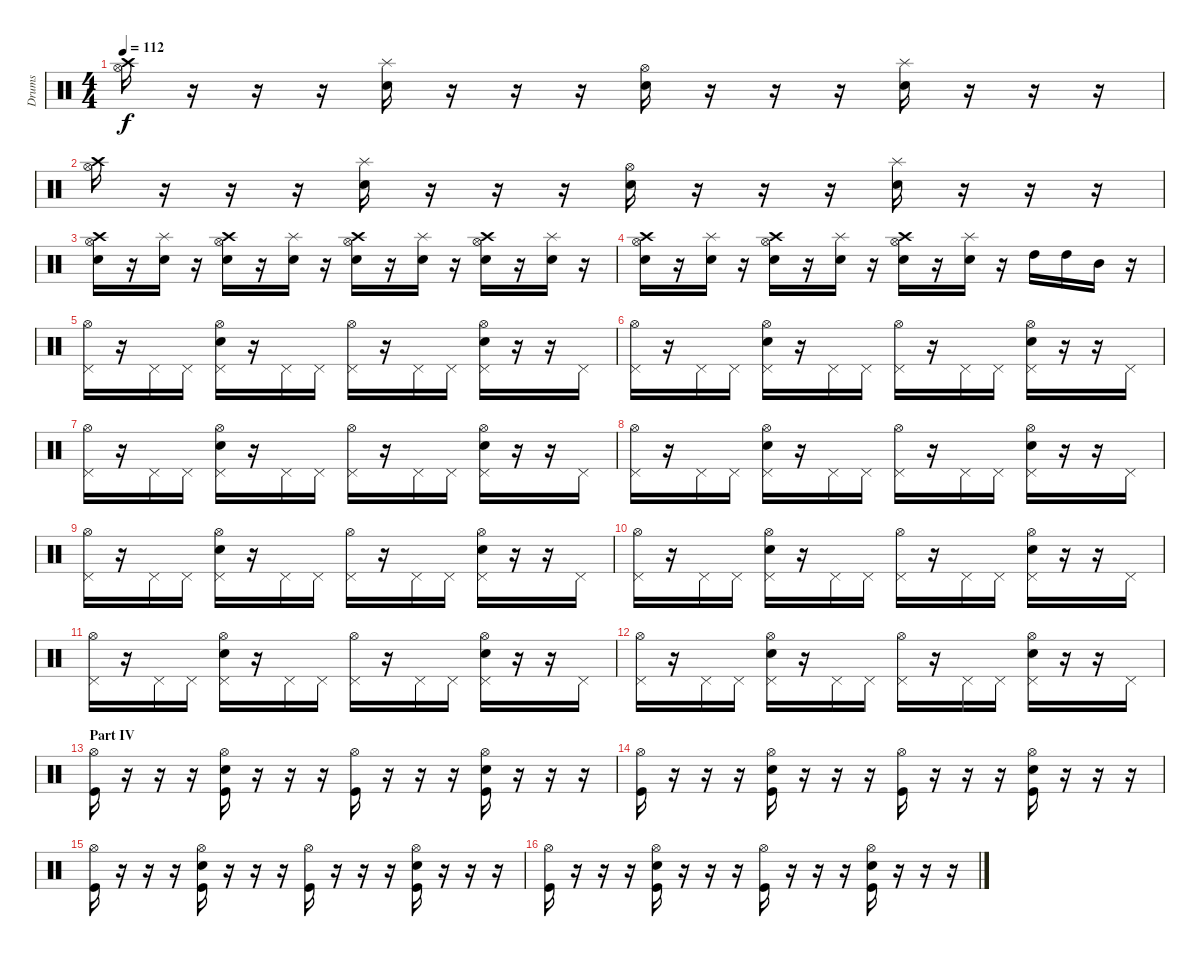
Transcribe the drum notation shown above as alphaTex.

\track ("Drums" "Drums") {instrument percussion}
\staff {score}
\articulation defaults
\ts (4 4)
\tempo 112
\clef neutral
\ks c
("Hi-Hat (open)" "Crash high (hit)").16{dy f} r.16 r.16 r.16 ("Electric Snare (hit)" "Splash (hit)").16 r.16 r.16 r.16 ("Hi-Hat (open)" "Electric Snare (hit)").16 r.16 r.16 r.16 ("Electric Snare (hit)" "Splash (hit)").16 r.16 r.16 r.16 |
("Hi-Hat (open)" "Crash high (hit)").16 r.16 r.16 r.16 ("Electric Snare (hit)" "Splash (hit)").16 r.16 r.16 r.16 ("Hi-Hat (open)" "Electric Snare (hit)").16 r.16 r.16 r.16 ("Electric Snare (hit)" "Splash (hit)").16 r.16 r.16 r.16 |
("Hi-Hat (open)" "Electric Snare (hit)" "Crash high (hit)").16 r.16 ("Electric Snare (hit)" "Splash (hit)").16 r.16 ("Hi-Hat (open)" "Electric Snare (hit)" "Crash high (hit)").16 r.16 ("Electric Snare (hit)" "Splash (hit)").16 r.16 ("Hi-Hat (open)" "Electric Snare (hit)" "Crash high (hit)").16 r.16 ("Electric Snare (hit)" "Splash (hit)").16 r.16 ("Hi-Hat (open)" "Electric Snare (hit)" "Crash high (hit)").16 r.16 ("Electric Snare (hit)" "Splash (hit)").16 r.16 |
("Hi-Hat (open)" "Electric Snare (hit)" "Crash high (hit)").16 r.16 ("Electric Snare (hit)" "Splash (hit)").16 r.16 ("Hi-Hat (open)" "Electric Snare (hit)" "Crash high (hit)").16 r.16 ("Electric Snare (hit)" "Splash (hit)").16 r.16 ("Hi-Hat (open)" "Electric Snare (hit)" "Crash high (hit)").16 r.16 ("Electric Snare (hit)" "Splash (hit)").16 r.16 "High Tom (hit)".16 "High Tom (hit)".16 "Mid Tom (hit)".16 r.16 |
("Pedal Hi-Hat (hit)" "Hi-Hat (open)").16 r.16 "Pedal Hi-Hat (hit)".16 "Pedal Hi-Hat (hit)".16 ("Pedal Hi-Hat (hit)" "Hi-Hat (open)" "Electric Snare (hit)").16 r.16 "Pedal Hi-Hat (hit)".16 "Pedal Hi-Hat (hit)".16 ("Pedal Hi-Hat (hit)" "Hi-Hat (open)").16 r.16 "Pedal Hi-Hat (hit)".16 "Pedal Hi-Hat (hit)".16 ("Pedal Hi-Hat (hit)" "Hi-Hat (open)" "Electric Snare (hit)").16 r.16 r.16 "Pedal Hi-Hat (hit)".16 |
("Pedal Hi-Hat (hit)" "Hi-Hat (open)").16 r.16 "Pedal Hi-Hat (hit)".16 "Pedal Hi-Hat (hit)".16 ("Pedal Hi-Hat (hit)" "Hi-Hat (open)" "Electric Snare (hit)").16 r.16 "Pedal Hi-Hat (hit)".16 "Pedal Hi-Hat (hit)".16 ("Pedal Hi-Hat (hit)" "Hi-Hat (open)").16 r.16 "Pedal Hi-Hat (hit)".16 "Pedal Hi-Hat (hit)".16 ("Pedal Hi-Hat (hit)" "Hi-Hat (open)" "Electric Snare (hit)").16 r.16 r.16 "Pedal Hi-Hat (hit)".16 |
("Pedal Hi-Hat (hit)" "Hi-Hat (open)").16 r.16 "Pedal Hi-Hat (hit)".16 "Pedal Hi-Hat (hit)".16 ("Pedal Hi-Hat (hit)" "Hi-Hat (open)" "Electric Snare (hit)").16 r.16 "Pedal Hi-Hat (hit)".16 "Pedal Hi-Hat (hit)".16 ("Pedal Hi-Hat (hit)" "Hi-Hat (open)").16 r.16 "Pedal Hi-Hat (hit)".16 "Pedal Hi-Hat (hit)".16 ("Pedal Hi-Hat (hit)" "Hi-Hat (open)" "Electric Snare (hit)").16 r.16 r.16 "Pedal Hi-Hat (hit)".16 |
("Pedal Hi-Hat (hit)" "Hi-Hat (open)").16 r.16 "Pedal Hi-Hat (hit)".16 "Pedal Hi-Hat (hit)".16 ("Pedal Hi-Hat (hit)" "Hi-Hat (open)" "Electric Snare (hit)").16 r.16 "Pedal Hi-Hat (hit)".16 "Pedal Hi-Hat (hit)".16 ("Pedal Hi-Hat (hit)" "Hi-Hat (open)").16 r.16 "Pedal Hi-Hat (hit)".16 "Pedal Hi-Hat (hit)".16 ("Pedal Hi-Hat (hit)" "Hi-Hat (open)" "Electric Snare (hit)").16 r.16 r.16 "Pedal Hi-Hat (hit)".16 |
("Pedal Hi-Hat (hit)" "Hi-Hat (open)").16 r.16 "Pedal Hi-Hat (hit)".16 "Pedal Hi-Hat (hit)".16 ("Pedal Hi-Hat (hit)" "Hi-Hat (open)" "Electric Snare (hit)").16 r.16 "Pedal Hi-Hat (hit)".16 "Pedal Hi-Hat (hit)".16 ("Pedal Hi-Hat (hit)" "Hi-Hat (open)").16 r.16 "Pedal Hi-Hat (hit)".16 "Pedal Hi-Hat (hit)".16 ("Pedal Hi-Hat (hit)" "Hi-Hat (open)" "Electric Snare (hit)").16 r.16 r.16 "Pedal Hi-Hat (hit)".16 |
("Pedal Hi-Hat (hit)" "Hi-Hat (open)").16 r.16 "Pedal Hi-Hat (hit)".16 "Pedal Hi-Hat (hit)".16 ("Pedal Hi-Hat (hit)" "Hi-Hat (open)" "Electric Snare (hit)").16 r.16 "Pedal Hi-Hat (hit)".16 "Pedal Hi-Hat (hit)".16 ("Pedal Hi-Hat (hit)" "Hi-Hat (open)").16 r.16 "Pedal Hi-Hat (hit)".16 "Pedal Hi-Hat (hit)".16 ("Pedal Hi-Hat (hit)" "Hi-Hat (open)" "Electric Snare (hit)").16 r.16 r.16 "Pedal Hi-Hat (hit)".16 |
("Pedal Hi-Hat (hit)" "Hi-Hat (open)").16 r.16 "Pedal Hi-Hat (hit)".16 "Pedal Hi-Hat (hit)".16 ("Pedal Hi-Hat (hit)" "Hi-Hat (open)" "Electric Snare (hit)").16 r.16 "Pedal Hi-Hat (hit)".16 "Pedal Hi-Hat (hit)".16 ("Pedal Hi-Hat (hit)" "Hi-Hat (open)").16 r.16 "Pedal Hi-Hat (hit)".16 "Pedal Hi-Hat (hit)".16 ("Pedal Hi-Hat (hit)" "Hi-Hat (open)" "Electric Snare (hit)").16 r.16 r.16 "Pedal Hi-Hat (hit)".16 |
("Pedal Hi-Hat (hit)" "Hi-Hat (open)").16 r.16 "Pedal Hi-Hat (hit)".16 "Pedal Hi-Hat (hit)".16 ("Pedal Hi-Hat (hit)" "Hi-Hat (open)" "Electric Snare (hit)").16 r.16 "Pedal Hi-Hat (hit)".16 "Pedal Hi-Hat (hit)".16 ("Pedal Hi-Hat (hit)" "Hi-Hat (open)").16 r.16 "Pedal Hi-Hat (hit)".16 "Pedal Hi-Hat (hit)".16 ("Pedal Hi-Hat (hit)" "Hi-Hat (open)" "Electric Snare (hit)").16 r.16 r.16 "Pedal Hi-Hat (hit)".16 |
\section ("" "Part IV")
("Hi-Hat (open)" "Kick (hit)").16 r.16 r.16 r.16 ("Hi-Hat (open)" "Electric Snare (hit)" "Kick (hit)").16 r.16 r.16 r.16 ("Hi-Hat (open)" "Kick (hit)").16 r.16 r.16 r.16 ("Hi-Hat (open)" "Electric Snare (hit)" "Kick (hit)").16 r.16 r.16 r.16 |
("Hi-Hat (open)" "Kick (hit)").16 r.16 r.16 r.16 ("Hi-Hat (open)" "Electric Snare (hit)" "Kick (hit)").16 r.16 r.16 r.16 ("Hi-Hat (open)" "Kick (hit)").16 r.16 r.16 r.16 ("Hi-Hat (open)" "Electric Snare (hit)" "Kick (hit)").16 r.16 r.16 r.16 |
("Hi-Hat (open)" "Kick (hit)").16 r.16 r.16 r.16 ("Hi-Hat (open)" "Electric Snare (hit)" "Kick (hit)").16 r.16 r.16 r.16 ("Hi-Hat (open)" "Kick (hit)").16 r.16 r.16 r.16 ("Hi-Hat (open)" "Electric Snare (hit)" "Kick (hit)").16 r.16 r.16 r.16 |
("Hi-Hat (open)" "Kick (hit)").16 r.16 r.16 r.16 ("Hi-Hat (open)" "Electric Snare (hit)" "Kick (hit)").16 r.16 r.16 r.16 ("Hi-Hat (open)" "Kick (hit)").16 r.16 r.16 r.16 ("Hi-Hat (open)" "Electric Snare (hit)" "Kick (hit)").16 r.16 r.16 r.16
